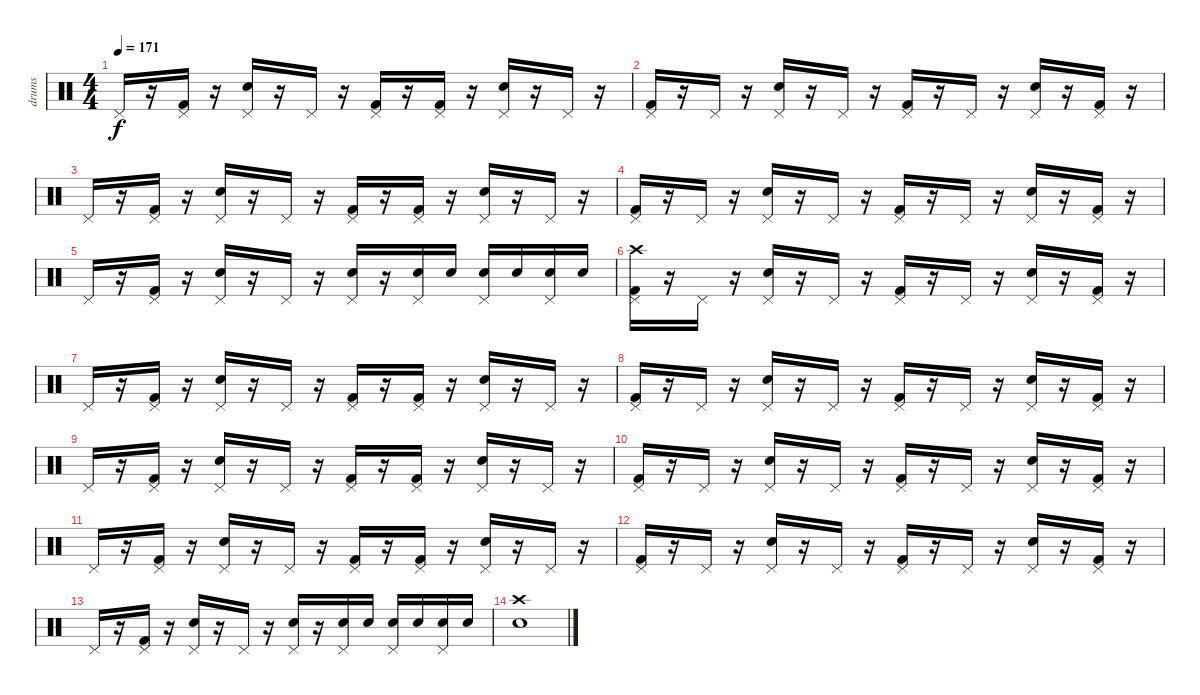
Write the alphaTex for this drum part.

\track ("drums" "drums") {instrument percussion}
\staff {score}
\articulation defaults
\ts (4 4)
\tempo 171
\clef neutral
\ks c "Pedal Hi-Hat (hit)".16{dy f}
r.16 ("Pedal Hi-Hat (hit)" "Kick (hit) 2").16 r.16 ("Pedal Hi-Hat (hit)" "Electric Snare (hit)").16 r.16 "Pedal Hi-Hat (hit)".16 r.16 ("Pedal Hi-Hat (hit)" "Kick (hit) 2").16 r.16 ("Pedal Hi-Hat (hit)" "Kick (hit) 2").16 r.16 ("Pedal Hi-Hat (hit)" "Electric Snare (hit)").16 r.16 "Pedal Hi-Hat (hit)".16 r.16 |
("Pedal Hi-Hat (hit)" "Kick (hit) 2").16 r.16 "Pedal Hi-Hat (hit)".16 r.16 ("Pedal Hi-Hat (hit)" "Electric Snare (hit)").16 r.16 "Pedal Hi-Hat (hit)".16 r.16 ("Pedal Hi-Hat (hit)" "Kick (hit) 2").16 r.16 "Pedal Hi-Hat (hit)".16 r.16 ("Pedal Hi-Hat (hit)" "Electric Snare (hit)").16 r.16 ("Pedal Hi-Hat (hit)" "Kick (hit) 2").16 r.16 |
"Pedal Hi-Hat (hit)".16 r.16 ("Pedal Hi-Hat (hit)" "Kick (hit) 2").16 r.16 ("Pedal Hi-Hat (hit)" "Electric Snare (hit)").16 r.16 "Pedal Hi-Hat (hit)".16 r.16 ("Pedal Hi-Hat (hit)" "Kick (hit) 2").16 r.16 ("Pedal Hi-Hat (hit)" "Kick (hit) 2").16 r.16 ("Pedal Hi-Hat (hit)" "Electric Snare (hit)").16 r.16 "Pedal Hi-Hat (hit)".16 r.16 |
("Pedal Hi-Hat (hit)" "Kick (hit) 2").16 r.16 "Pedal Hi-Hat (hit)".16 r.16 ("Pedal Hi-Hat (hit)" "Electric Snare (hit)").16 r.16 "Pedal Hi-Hat (hit)".16 r.16 ("Pedal Hi-Hat (hit)" "Kick (hit) 2").16 r.16 "Pedal Hi-Hat (hit)".16 r.16 ("Pedal Hi-Hat (hit)" "Electric Snare (hit)").16 r.16 ("Pedal Hi-Hat (hit)" "Kick (hit) 2").16 r.16 |
"Pedal Hi-Hat (hit)".16 r.16 ("Pedal Hi-Hat (hit)" "Kick (hit) 2").16 r.16 ("Pedal Hi-Hat (hit)" "Electric Snare (hit)").16 r.16 "Pedal Hi-Hat (hit)".16 r.16 ("Pedal Hi-Hat (hit)" "Electric Snare (hit)").16 r.16 ("Pedal Hi-Hat (hit)" "Electric Snare (hit)").16 "Electric Snare (hit)".16 ("Pedal Hi-Hat (hit)" "Electric Snare (hit)").16 "Electric Snare (hit)".16 ("Pedal Hi-Hat (hit)" "Electric Snare (hit)").16 "Electric Snare (hit)".16 |
("Pedal Hi-Hat (hit)" "Crash high (hit)" "Kick (hit) 2").16 r.16 "Pedal Hi-Hat (hit)".16 r.16 ("Pedal Hi-Hat (hit)" "Electric Snare (hit)").16 r.16 "Pedal Hi-Hat (hit)".16 r.16 ("Pedal Hi-Hat (hit)" "Kick (hit) 2").16 r.16 "Pedal Hi-Hat (hit)".16 r.16 ("Pedal Hi-Hat (hit)" "Electric Snare (hit)").16 r.16 ("Pedal Hi-Hat (hit)" "Kick (hit) 2").16 r.16 |
"Pedal Hi-Hat (hit)".16 r.16 ("Pedal Hi-Hat (hit)" "Kick (hit) 2").16 r.16 ("Pedal Hi-Hat (hit)" "Electric Snare (hit)").16 r.16 "Pedal Hi-Hat (hit)".16 r.16 ("Pedal Hi-Hat (hit)" "Kick (hit) 2").16 r.16 ("Pedal Hi-Hat (hit)" "Kick (hit) 2").16 r.16 ("Pedal Hi-Hat (hit)" "Electric Snare (hit)").16 r.16 "Pedal Hi-Hat (hit)".16 r.16 |
("Pedal Hi-Hat (hit)" "Kick (hit) 2").16 r.16 "Pedal Hi-Hat (hit)".16 r.16 ("Pedal Hi-Hat (hit)" "Electric Snare (hit)").16 r.16 "Pedal Hi-Hat (hit)".16 r.16 ("Pedal Hi-Hat (hit)" "Kick (hit) 2").16 r.16 "Pedal Hi-Hat (hit)".16 r.16 ("Pedal Hi-Hat (hit)" "Electric Snare (hit)").16 r.16 ("Pedal Hi-Hat (hit)" "Kick (hit) 2").16 r.16 |
"Pedal Hi-Hat (hit)".16 r.16 ("Pedal Hi-Hat (hit)" "Kick (hit) 2").16 r.16 ("Pedal Hi-Hat (hit)" "Electric Snare (hit)").16 r.16 "Pedal Hi-Hat (hit)".16 r.16 ("Pedal Hi-Hat (hit)" "Kick (hit) 2").16 r.16 ("Pedal Hi-Hat (hit)" "Kick (hit) 2").16 r.16 ("Pedal Hi-Hat (hit)" "Electric Snare (hit)").16 r.16 "Pedal Hi-Hat (hit)".16 r.16 |
("Pedal Hi-Hat (hit)" "Kick (hit) 2").16 r.16 "Pedal Hi-Hat (hit)".16 r.16 ("Pedal Hi-Hat (hit)" "Electric Snare (hit)").16 r.16 "Pedal Hi-Hat (hit)".16 r.16 ("Pedal Hi-Hat (hit)" "Kick (hit) 2").16 r.16 "Pedal Hi-Hat (hit)".16 r.16 ("Pedal Hi-Hat (hit)" "Electric Snare (hit)").16 r.16 ("Pedal Hi-Hat (hit)" "Kick (hit) 2").16 r.16 |
"Pedal Hi-Hat (hit)".16 r.16 ("Pedal Hi-Hat (hit)" "Kick (hit) 2").16 r.16 ("Pedal Hi-Hat (hit)" "Electric Snare (hit)").16 r.16 "Pedal Hi-Hat (hit)".16 r.16 ("Pedal Hi-Hat (hit)" "Kick (hit) 2").16 r.16 ("Pedal Hi-Hat (hit)" "Kick (hit) 2").16 r.16 ("Pedal Hi-Hat (hit)" "Electric Snare (hit)").16 r.16 "Pedal Hi-Hat (hit)".16 r.16 |
("Pedal Hi-Hat (hit)" "Kick (hit) 2").16 r.16 "Pedal Hi-Hat (hit)".16 r.16 ("Pedal Hi-Hat (hit)" "Electric Snare (hit)").16 r.16 "Pedal Hi-Hat (hit)".16 r.16 ("Pedal Hi-Hat (hit)" "Kick (hit) 2").16 r.16 "Pedal Hi-Hat (hit)".16 r.16 ("Pedal Hi-Hat (hit)" "Electric Snare (hit)").16 r.16 ("Pedal Hi-Hat (hit)" "Kick (hit) 2").16 r.16 |
"Pedal Hi-Hat (hit)".16 r.16 ("Pedal Hi-Hat (hit)" "Kick (hit) 2").16 r.16 ("Pedal Hi-Hat (hit)" "Electric Snare (hit)").16 r.16 "Pedal Hi-Hat (hit)".16 r.16 ("Pedal Hi-Hat (hit)" "Electric Snare (hit)").16 r.16 ("Pedal Hi-Hat (hit)" "Electric Snare (hit)").16 "Electric Snare (hit)".16 ("Pedal Hi-Hat (hit)" "Electric Snare (hit)").16 "Electric Snare (hit)".16 ("Pedal Hi-Hat (hit)" "Electric Snare (hit)").16 "Electric Snare (hit)".16 |
("Crash high (hit)" "Electric Snare (hit)").1
